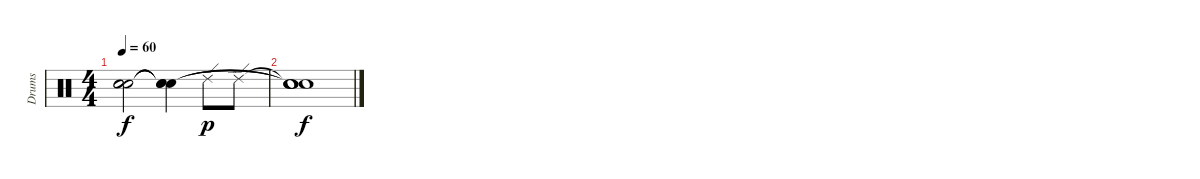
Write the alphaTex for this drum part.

\track ("Drums" "Drums") {solo instrument percussion}
\staff {score}
\articulation defaults
\ts (4 4)
\tempo 60
\clef neutral
\ks c
("Snare (hit)"{t} "Snare (hit)"{t} "Snare (hit)"{t}).2{dy f} ("Snare (hit)"{t} "Snare (hit)"{t} "Snare (hit)"{t}).4 "Ride (edge) 2".8{dy p} "Ride (edge) 2".8 |
("Snare (hit)"{t} "Snare (hit)"{t} "Snare (hit)"{t} "Snare (hit)"{t}).1{dy f}
